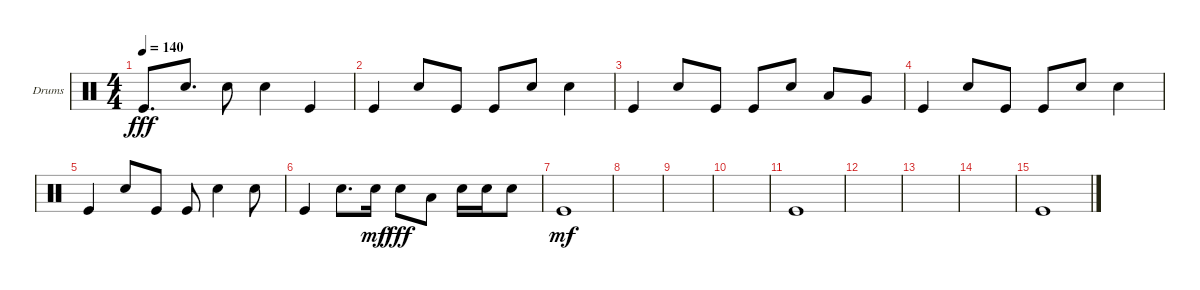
\defaultSystemsLayout 4
\bracketExtendMode groupsimilarinstruments
\firstSystemTrackNameOrientation horizontal
\otherSystemsTrackNameOrientation horizontal
\track ("Helders" "Drums") {instrument percussion}
\staff {score}
\articulation defaults
\ts (4 4)
\tempo 140
\clef neutral
\ks c "Kick (hit)".8{d dy fff} "Snare (hit) 2".8{d} "Snare (hit) 2".8 "Snare (hit) 2".4 "Kick (hit)".4
|
"Kick (hit)".4 "Snare (hit) 2".8 "Kick (hit)".8 "Kick (hit)".8 "Snare (hit) 2".8 "Snare (hit) 2".4 |
"Kick (hit)".4 "Snare (hit) 2".8 "Kick (hit)".8 "Kick (hit)".8 "Snare (hit) 2".8 "Low Tom (hit)".8 "Very Low Tom (hit)".8 |
"Kick (hit)".4 "Snare (hit) 2".8 "Kick (hit)".8 "Kick (hit)".8 "Snare (hit) 2".8 "Snare (hit) 2".4 |
"Kick (hit)".4 "Snare (hit) 2".8 "Kick (hit)".8 "Kick (hit)".8 "Snare (hit) 2".4 "Snare (hit) 2".8 |
"Kick (hit)".4 "Snare (hit) 2".8{d} "Snare (hit) 2".16{dy mf} "Snare (hit) 2".8{dy fff} "Low Tom (hit)".8 "Snare (hit) 2".16 "Snare (hit) 2".16 "Snare (hit) 2".8 |
"Kick (hit)".1{dy mf} |
|
|
|
"Kick (hit)".1 |
|
|
|
"Kick (hit)".1
